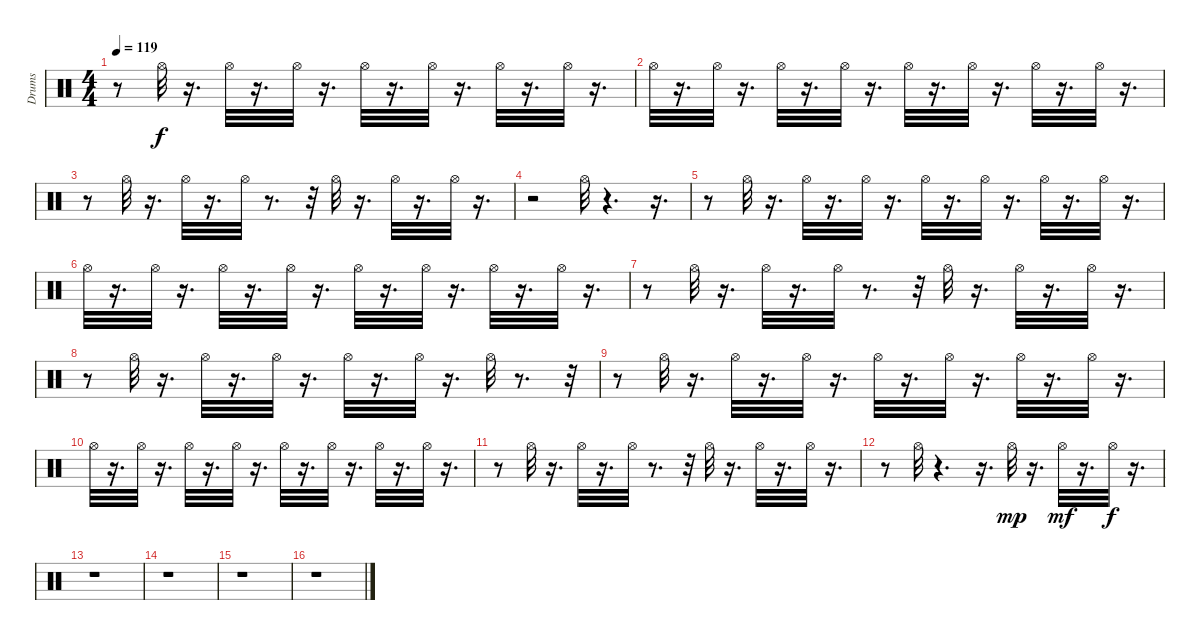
\track ("Drums" "Drums") {instrument percussion}
\staff {score}
\articulation defaults
\ts (4 4)
\tempo 119
\clef neutral
\ks c
r.8{dy f} "Hi-Hat (open)".32 r.16{d} "Hi-Hat (open)".32 r.16{d} "Hi-Hat (open)".32 r.16{d} "Hi-Hat (open)".32 r.16{d} "Hi-Hat (open)".32 r.16{d} "Hi-Hat (open)".32 r.16{d} "Hi-Hat (open)".32 r.16{d} |
"Hi-Hat (open)".32 r.16{d} "Hi-Hat (open)".32 r.16{d} "Hi-Hat (open)".32 r.16{d} "Hi-Hat (open)".32 r.16{d} "Hi-Hat (open)".32 r.16{d} "Hi-Hat (open)".32 r.16{d} "Hi-Hat (open)".32 r.16{d} "Hi-Hat (open)".32 r.16{d} |
r.8 "Hi-Hat (open)".32 r.16{d} "Hi-Hat (open)".32 r.16{d} "Hi-Hat (open)".32 r.8{d} r.32 "Hi-Hat (open)".32 r.16{d} "Hi-Hat (open)".32 r.16{d} "Hi-Hat (open)".32 r.16{d} |
r.2 "Hi-Hat (open)".32 r.4{d} r.16{d} |
r.8 "Hi-Hat (open)".32 r.16{d} "Hi-Hat (open)".32 r.16{d} "Hi-Hat (open)".32 r.16{d} "Hi-Hat (open)".32 r.16{d} "Hi-Hat (open)".32 r.16{d} "Hi-Hat (open)".32 r.16{d} "Hi-Hat (open)".32 r.16{d} |
"Hi-Hat (open)".32 r.16{d} "Hi-Hat (open)".32 r.16{d} "Hi-Hat (open)".32 r.16{d} "Hi-Hat (open)".32 r.16{d} "Hi-Hat (open)".32 r.16{d} "Hi-Hat (open)".32 r.16{d} "Hi-Hat (open)".32 r.16{d} "Hi-Hat (open)".32 r.16{d} |
r.8 "Hi-Hat (open)".32 r.16{d} "Hi-Hat (open)".32 r.16{d} "Hi-Hat (open)".32 r.8{d} r.32 "Hi-Hat (open)".32 r.16{d} "Hi-Hat (open)".32 r.16{d} "Hi-Hat (open)".32 r.16{d} |
r.8 "Hi-Hat (open)".32 r.16{d} "Hi-Hat (open)".32 r.16{d} "Hi-Hat (open)".32 r.16{d} "Hi-Hat (open)".32 r.16{d} "Hi-Hat (open)".32 r.16{d} "Hi-Hat (open)".32 r.8{d} r.32 |
r.8 "Hi-Hat (open)".32 r.16{d} "Hi-Hat (open)".32 r.16{d} "Hi-Hat (open)".32 r.16{d} "Hi-Hat (open)".32 r.16{d} "Hi-Hat (open)".32 r.16{d} "Hi-Hat (open)".32 r.16{d} "Hi-Hat (open)".32 r.16{d} |
"Hi-Hat (open)".32 r.16{d} "Hi-Hat (open)".32 r.16{d} "Hi-Hat (open)".32 r.16{d} "Hi-Hat (open)".32 r.16{d} "Hi-Hat (open)".32 r.16{d} "Hi-Hat (open)".32 r.16{d} "Hi-Hat (open)".32 r.16{d} "Hi-Hat (open)".32 r.16{d} |
r.8 "Hi-Hat (open)".32 r.16{d} "Hi-Hat (open)".32 r.16{d} "Hi-Hat (open)".32 r.8{d} r.32 "Hi-Hat (open)".32 r.16{d} "Hi-Hat (open)".32 r.16{d} "Hi-Hat (open)".32 r.16{d} |
r.8 "Hi-Hat (open)".32 r.4{d} r.16{d} "Hi-Hat (open)".32{dy mp} r.16{d} "Hi-Hat (open)".32{dy mf} r.16{d} "Hi-Hat (open)".32{dy f} r.16{d} |
r.1 |
r.1 |
r.1 |
r.1
